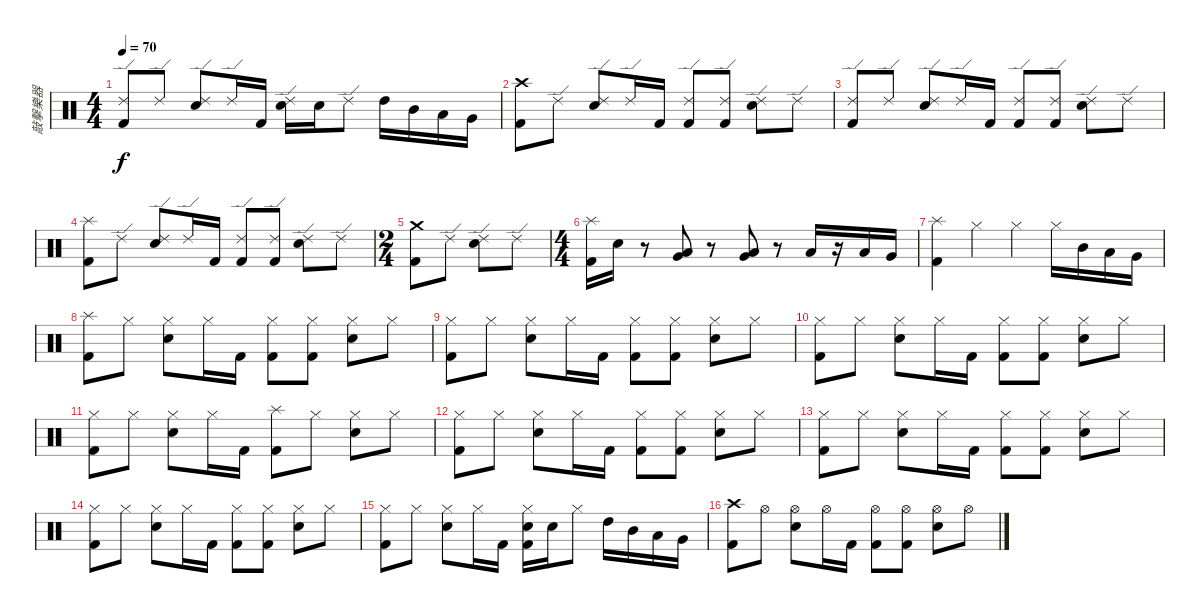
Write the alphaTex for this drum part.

\track ("敲擊樂器" "敲擊樂器") {instrument percussion}
\staff {score}
\articulation defaults
\ts (4 4)
\tempo 70
\clef neutral
\ks c
("Ride (edge) 2" "Kick (hit) 2").8{dy f} "Ride (edge) 2".8 ("Ride (edge) 2" "Snare (hit) 2").8 "Ride (edge) 2".16 "Kick (hit) 2".16 ("Ride (edge) 2" "Snare (hit) 2").16 "Snare (hit) 2".16 "Ride (edge) 2".8 "High Tom (hit)".16 "Mid Tom (hit)".16 "Low Tom (hit)".16 "Very Low Tom (hit)".16 |
("Crash high (hit)" "Kick (hit) 2").8 "Ride (edge) 2".8 ("Ride (edge) 2" "Snare (hit) 2").8 "Ride (edge) 2".16 "Kick (hit) 2".16 ("Ride (edge) 2" "Kick (hit) 2").8 ("Ride (edge) 2" "Kick (hit) 2").8 ("Ride (edge) 2" "Snare (hit) 2").8 "Ride (edge) 2".8 |
("Ride (edge) 2" "Kick (hit) 2").8 "Ride (edge) 2".8 ("Ride (edge) 2" "Snare (hit) 2").8 "Ride (edge) 2".16 "Kick (hit) 2".16 ("Ride (edge) 2" "Kick (hit) 2").8 ("Ride (edge) 2" "Kick (hit) 2").8 ("Ride (edge) 2" "Snare (hit) 2").8 "Ride (edge) 2".8 |
("Splash (hit)" "Kick (hit) 2").8 "Ride (edge) 2".8 ("Ride (edge) 2" "Snare (hit) 2").8 "Ride (edge) 2".16 "Kick (hit) 2".16 ("Ride (edge) 2" "Kick (hit) 2").8 ("Ride (edge) 2" "Kick (hit) 2").8 ("Ride (edge) 2" "Snare (hit) 2").8 "Ride (edge) 2".8 |
\ts (2 4)
("Crash medium (hit)" "Kick (hit) 2").8 "Ride (edge) 2".8 ("Ride (edge) 2" "Snare (hit) 2").8 "Ride (edge) 2".8 |
\ts (4 4)
("Splash (hit)" "Kick (hit) 2").16 "Snare (hit) 2".16 r.8 ("Very Low Tom (hit)" "Low Tom (hit)").8 r.8 ("Low Floor Tom (hit)" "Very Low Tom (hit)").8 r.8 "Low Floor Tom (hit)".16 r.16 "Low Tom (hit)".16 "Very Low Tom (hit)".16 |
("Splash (hit)" "Kick (hit) 2").4 "Hi-Hat (closed)".4 "Hi-Hat (closed)".4 "Hi-Hat (closed)".16 "Mid Tom (hit)".16 "Low Tom (hit)".16 "Very Low Tom (hit)".16 |
("Splash (hit)" "Kick (hit) 2").8 "Hi-Hat (closed)".8 ("Hi-Hat (closed)" "Snare (hit) 2").8 "Hi-Hat (closed)".16 "Kick (hit) 2".16 ("Hi-Hat (closed)" "Kick (hit) 2").8 ("Hi-Hat (closed)" "Kick (hit) 2").8 ("Hi-Hat (closed)" "Snare (hit) 2").8 "Hi-Hat (closed)".8 |
("Hi-Hat (closed)" "Kick (hit) 2").8 "Hi-Hat (closed)".8 ("Hi-Hat (closed)" "Snare (hit) 2").8 "Hi-Hat (closed)".16 "Kick (hit) 2".16 ("Hi-Hat (closed)" "Kick (hit) 2").8 ("Hi-Hat (closed)" "Kick (hit) 2").8 ("Hi-Hat (closed)" "Snare (hit) 2").8 "Hi-Hat (closed)".8 |
("Hi-Hat (closed)" "Kick (hit) 2").8 "Hi-Hat (closed)".8 ("Hi-Hat (closed)" "Snare (hit) 2").8 "Hi-Hat (closed)".16 "Kick (hit) 2".16 ("Hi-Hat (closed)" "Kick (hit) 2").8 ("Hi-Hat (closed)" "Kick (hit) 2").8 ("Hi-Hat (closed)" "Snare (hit) 2").8 "Hi-Hat (closed)".8 |
("Hi-Hat (closed)" "Kick (hit) 2").8 "Hi-Hat (closed)".8 ("Hi-Hat (closed)" "Snare (hit) 2").8 "Hi-Hat (closed)".16 "Kick (hit) 2".16 ("Splash (hit)" "Kick (hit) 2").8 "Hi-Hat (closed)".8 ("Hi-Hat (closed)" "Snare (hit) 2").8 "Hi-Hat (closed)".8 |
("Hi-Hat (closed)" "Kick (hit) 2").8 "Hi-Hat (closed)".8 ("Hi-Hat (closed)" "Snare (hit) 2").8 "Hi-Hat (closed)".16 "Kick (hit) 2".16 ("Hi-Hat (closed)" "Kick (hit) 2").8 ("Hi-Hat (closed)" "Kick (hit) 2").8 ("Hi-Hat (closed)" "Snare (hit) 2").8 "Hi-Hat (closed)".8 |
("Hi-Hat (closed)" "Kick (hit) 2").8 "Hi-Hat (closed)".8 ("Hi-Hat (closed)" "Snare (hit) 2").8 "Hi-Hat (closed)".16 "Kick (hit) 2".16 ("Hi-Hat (closed)" "Kick (hit) 2").8 ("Hi-Hat (closed)" "Kick (hit) 2").8 ("Hi-Hat (closed)" "Snare (hit) 2").8 "Hi-Hat (closed)".8 |
("Hi-Hat (closed)" "Kick (hit) 2").8 "Hi-Hat (closed)".8 ("Hi-Hat (closed)" "Snare (hit) 2").8 "Hi-Hat (closed)".16 "Kick (hit) 2".16 ("Hi-Hat (closed)" "Kick (hit) 2").8 ("Hi-Hat (closed)" "Kick (hit) 2").8 ("Hi-Hat (closed)" "Snare (hit) 2").8 "Hi-Hat (closed)".8 |
("Hi-Hat (closed)" "Kick (hit) 2").8 "Hi-Hat (closed)".8 ("Hi-Hat (closed)" "Snare (hit) 2").8 "Hi-Hat (closed)".16 "Kick (hit) 2".16 ("Hi-Hat (closed)" "Snare (hit) 2" "Kick (hit) 2").16 "Snare (hit) 2".16 "Hi-Hat (closed)".8 "High Tom (hit)".16 "Mid Tom (hit)".16 "Low Tom (hit)".16 "Very Low Tom (hit)".16 |
("Crash high (hit)" "Kick (hit) 2").8 "Hi-Hat (open)".8 ("Hi-Hat (open)" "Snare (hit) 2").8 "Hi-Hat (open)".16 "Kick (hit) 2".16 ("Hi-Hat (open)" "Kick (hit) 2").8 ("Hi-Hat (open)" "Kick (hit) 2").8 ("Hi-Hat (open)" "Snare (hit) 2").8 "Hi-Hat (open)".8
